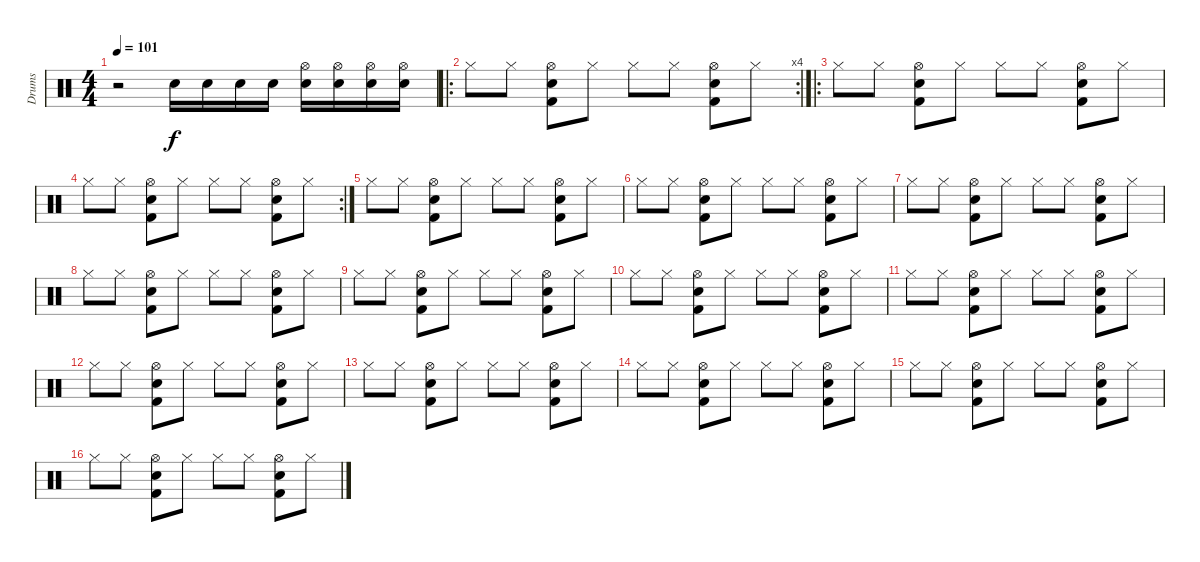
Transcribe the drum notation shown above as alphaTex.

\track ("Drums" "Drums") {instrument percussion}
\staff {score}
\articulation defaults
\ts (4 4)
\tempo 101
\clef neutral
\ks c
r.2{dy f} "Snare (hit) 2".16 "Snare (hit) 2".16 "Snare (hit) 2".16 "Snare (hit) 2".16 ("Snare (hit) 2" "Hi-Hat (open)").16 ("Snare (hit) 2" "Hi-Hat (open)").16 ("Snare (hit) 2" "Hi-Hat (open)").16 ("Snare (hit) 2" "Hi-Hat (open)").16 |
\ro
\rc 4 "Hi-Hat (closed)".8 "Hi-Hat (closed)".8
("Snare (hit) 2" "Hi-Hat (open)" "Kick (hit) 2").8 "Hi-Hat (closed)".8 "Hi-Hat (closed)".8 "Hi-Hat (closed)".8 ("Snare (hit) 2" "Hi-Hat (open)" "Kick (hit) 2").8 "Hi-Hat (closed)".8 |
\ro "Hi-Hat (closed)".8 "Hi-Hat (closed)".8
("Snare (hit) 2" "Hi-Hat (open)" "Kick (hit) 2").8 "Hi-Hat (closed)".8 "Hi-Hat (closed)".8 "Hi-Hat (closed)".8 ("Snare (hit) 2" "Hi-Hat (open)" "Kick (hit) 2").8 "Hi-Hat (closed)".8 |
\rc 2 "Hi-Hat (closed)".8 "Hi-Hat (closed)".8
("Snare (hit) 2" "Hi-Hat (open)" "Kick (hit) 2").8 "Hi-Hat (closed)".8 "Hi-Hat (closed)".8 "Hi-Hat (closed)".8 ("Snare (hit) 2" "Hi-Hat (open)" "Kick (hit) 2").8 "Hi-Hat (closed)".8 |
"Hi-Hat (closed)".8 "Hi-Hat (closed)".8 ("Snare (hit) 2" "Hi-Hat (open)" "Kick (hit) 2").8 "Hi-Hat (closed)".8 "Hi-Hat (closed)".8 "Hi-Hat (closed)".8 ("Snare (hit) 2" "Hi-Hat (open)" "Kick (hit) 2").8 "Hi-Hat (closed)".8 |
"Hi-Hat (closed)".8 "Hi-Hat (closed)".8 ("Snare (hit) 2" "Hi-Hat (open)" "Kick (hit) 2").8 "Hi-Hat (closed)".8 "Hi-Hat (closed)".8 "Hi-Hat (closed)".8 ("Snare (hit) 2" "Hi-Hat (open)" "Kick (hit) 2").8 "Hi-Hat (closed)".8 |
"Hi-Hat (closed)".8 "Hi-Hat (closed)".8 ("Snare (hit) 2" "Hi-Hat (open)" "Kick (hit) 2").8 "Hi-Hat (closed)".8 "Hi-Hat (closed)".8 "Hi-Hat (closed)".8 ("Snare (hit) 2" "Hi-Hat (open)" "Kick (hit) 2").8 "Hi-Hat (closed)".8 |
"Hi-Hat (closed)".8 "Hi-Hat (closed)".8 ("Snare (hit) 2" "Hi-Hat (open)" "Kick (hit) 2").8 "Hi-Hat (closed)".8 "Hi-Hat (closed)".8 "Hi-Hat (closed)".8 ("Snare (hit) 2" "Hi-Hat (open)" "Kick (hit) 2").8 "Hi-Hat (closed)".8 |
"Hi-Hat (closed)".8 "Hi-Hat (closed)".8 ("Snare (hit) 2" "Hi-Hat (open)" "Kick (hit) 2").8 "Hi-Hat (closed)".8 "Hi-Hat (closed)".8 "Hi-Hat (closed)".8 ("Snare (hit) 2" "Hi-Hat (open)" "Kick (hit) 2").8 "Hi-Hat (closed)".8 |
"Hi-Hat (closed)".8 "Hi-Hat (closed)".8 ("Snare (hit) 2" "Hi-Hat (open)" "Kick (hit) 2").8 "Hi-Hat (closed)".8 "Hi-Hat (closed)".8 "Hi-Hat (closed)".8 ("Snare (hit) 2" "Hi-Hat (open)" "Kick (hit) 2").8 "Hi-Hat (closed)".8 |
"Hi-Hat (closed)".8 "Hi-Hat (closed)".8 ("Snare (hit) 2" "Hi-Hat (open)" "Kick (hit) 2").8 "Hi-Hat (closed)".8 "Hi-Hat (closed)".8 "Hi-Hat (closed)".8 ("Snare (hit) 2" "Hi-Hat (open)" "Kick (hit) 2").8 "Hi-Hat (closed)".8 |
"Hi-Hat (closed)".8 "Hi-Hat (closed)".8 ("Snare (hit) 2" "Hi-Hat (open)" "Kick (hit) 2").8 "Hi-Hat (closed)".8 "Hi-Hat (closed)".8 "Hi-Hat (closed)".8 ("Snare (hit) 2" "Hi-Hat (open)" "Kick (hit) 2").8 "Hi-Hat (closed)".8 |
"Hi-Hat (closed)".8 "Hi-Hat (closed)".8 ("Snare (hit) 2" "Hi-Hat (open)" "Kick (hit) 2").8 "Hi-Hat (closed)".8 "Hi-Hat (closed)".8 "Hi-Hat (closed)".8 ("Snare (hit) 2" "Hi-Hat (open)" "Kick (hit) 2").8 "Hi-Hat (closed)".8 |
"Hi-Hat (closed)".8 "Hi-Hat (closed)".8 ("Snare (hit) 2" "Hi-Hat (open)" "Kick (hit) 2").8 "Hi-Hat (closed)".8 "Hi-Hat (closed)".8 "Hi-Hat (closed)".8 ("Snare (hit) 2" "Hi-Hat (open)" "Kick (hit) 2").8 "Hi-Hat (closed)".8 |
"Hi-Hat (closed)".8 "Hi-Hat (closed)".8 ("Snare (hit) 2" "Hi-Hat (open)" "Kick (hit) 2").8 "Hi-Hat (closed)".8 "Hi-Hat (closed)".8 "Hi-Hat (closed)".8 ("Snare (hit) 2" "Hi-Hat (open)" "Kick (hit) 2").8 "Hi-Hat (closed)".8 |
"Hi-Hat (closed)".8 "Hi-Hat (closed)".8 ("Snare (hit) 2" "Hi-Hat (open)" "Kick (hit) 2").8 "Hi-Hat (closed)".8 "Hi-Hat (closed)".8 "Hi-Hat (closed)".8 ("Snare (hit) 2" "Hi-Hat (open)" "Kick (hit) 2").8 "Hi-Hat (closed)".8
